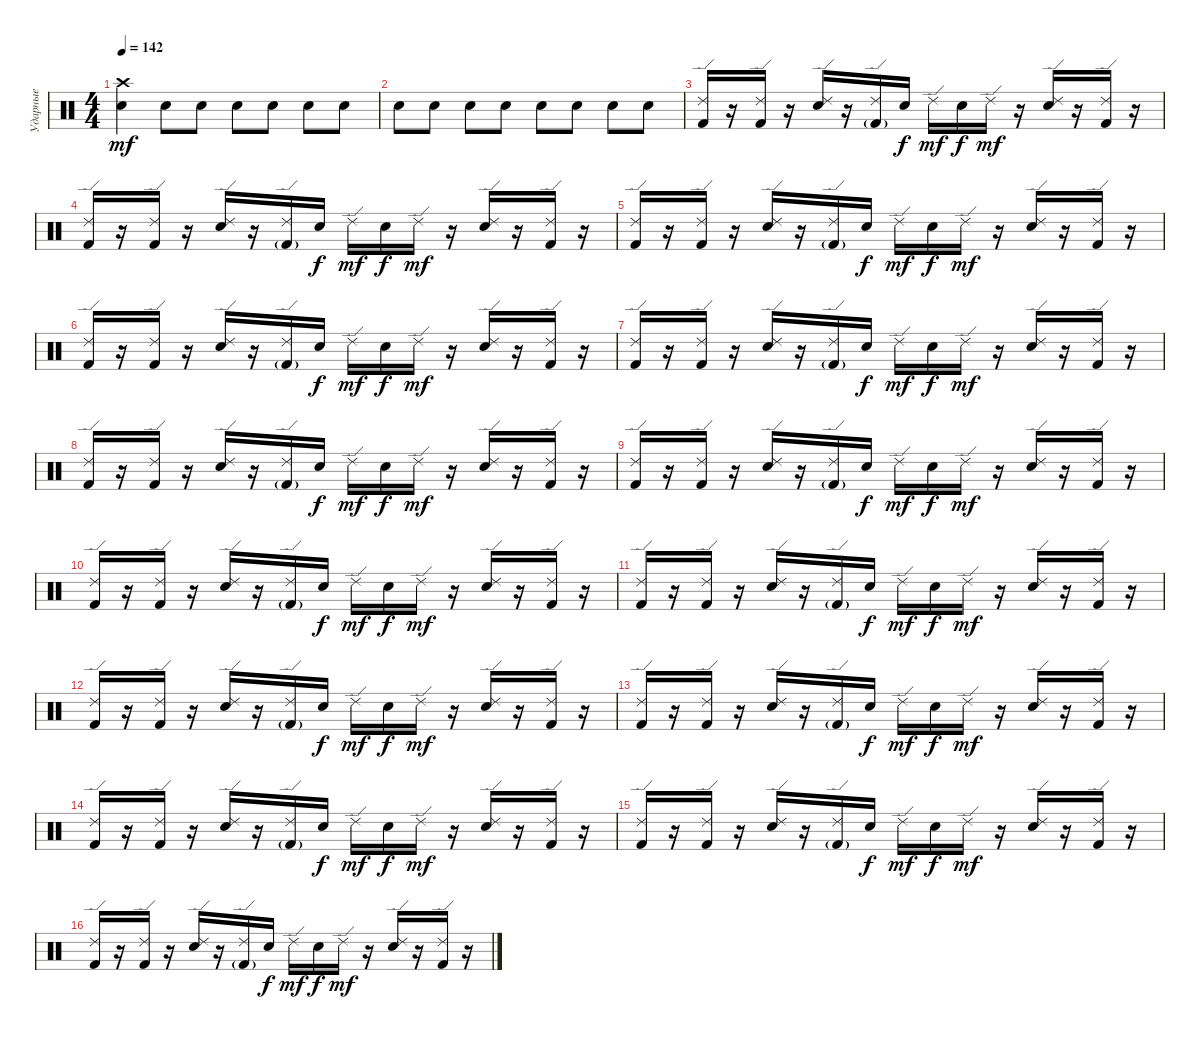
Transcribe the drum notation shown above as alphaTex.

\track ("Ударные" "Ударные") {instrument percussion}
\staff {score}
\articulation defaults
\ts (4 4)
\tempo 142
\clef neutral
\ks c
("Electric Snare (hit)" "Crash high (hit)").4{dy mf} "Electric Snare (hit)".8 "Electric Snare (hit)".8 "Electric Snare (hit)".8 "Electric Snare (hit)".8 "Electric Snare (hit)".8 "Electric Snare (hit)".8 |
"Electric Snare (hit)".8 "Electric Snare (hit)".8 "Electric Snare (hit)".8 "Electric Snare (hit)".8 "Electric Snare (hit)".8 "Electric Snare (hit)".8 "Electric Snare (hit)".8 "Electric Snare (hit)".8 |
("Kick (hit) 2" "Ride (edge) 2").16 r.16 ("Kick (hit) 2" "Ride (edge) 2").16 r.16 ("Electric Snare (hit)" "Ride (edge) 2").16 r.16 ("Kick (hit) 2"{g} "Ride (edge) 2").16 "Electric Snare (hit)".16{dy f} "Ride (edge) 2".16{dy mf} "Electric Snare (hit)".16{dy f} "Ride (edge) 2".16{dy mf} r.16 ("Electric Snare (hit)" "Ride (edge) 2").16 r.16 ("Kick (hit) 2" "Ride (edge) 2").16 r.16 |
("Kick (hit) 2" "Ride (edge) 2").16 r.16 ("Kick (hit) 2" "Ride (edge) 2").16 r.16 ("Electric Snare (hit)" "Ride (edge) 2").16 r.16 ("Kick (hit) 2"{g} "Ride (edge) 2").16 "Electric Snare (hit)".16{dy f} "Ride (edge) 2".16{dy mf} "Electric Snare (hit)".16{dy f} "Ride (edge) 2".16{dy mf} r.16 ("Electric Snare (hit)" "Ride (edge) 2").16 r.16 ("Kick (hit) 2" "Ride (edge) 2").16 r.16 |
("Kick (hit) 2" "Ride (edge) 2").16 r.16 ("Kick (hit) 2" "Ride (edge) 2").16 r.16 ("Electric Snare (hit)" "Ride (edge) 2").16 r.16 ("Kick (hit) 2"{g} "Ride (edge) 2").16 "Electric Snare (hit)".16{dy f} "Ride (edge) 2".16{dy mf} "Electric Snare (hit)".16{dy f} "Ride (edge) 2".16{dy mf} r.16 ("Electric Snare (hit)" "Ride (edge) 2").16 r.16 ("Kick (hit) 2" "Ride (edge) 2").16 r.16 |
("Kick (hit) 2" "Ride (edge) 2").16 r.16 ("Kick (hit) 2" "Ride (edge) 2").16 r.16 ("Electric Snare (hit)" "Ride (edge) 2").16 r.16 ("Kick (hit) 2"{g} "Ride (edge) 2").16 "Electric Snare (hit)".16{dy f} "Ride (edge) 2".16{dy mf} "Electric Snare (hit)".16{dy f} "Ride (edge) 2".16{dy mf} r.16 ("Electric Snare (hit)" "Ride (edge) 2").16 r.16 ("Kick (hit) 2" "Ride (edge) 2").16 r.16 |
("Kick (hit) 2" "Ride (edge) 2").16 r.16 ("Kick (hit) 2" "Ride (edge) 2").16 r.16 ("Electric Snare (hit)" "Ride (edge) 2").16 r.16 ("Kick (hit) 2"{g} "Ride (edge) 2").16 "Electric Snare (hit)".16{dy f} "Ride (edge) 2".16{dy mf} "Electric Snare (hit)".16{dy f} "Ride (edge) 2".16{dy mf} r.16 ("Electric Snare (hit)" "Ride (edge) 2").16 r.16 ("Kick (hit) 2" "Ride (edge) 2").16 r.16 |
("Kick (hit) 2" "Ride (edge) 2").16 r.16 ("Kick (hit) 2" "Ride (edge) 2").16 r.16 ("Electric Snare (hit)" "Ride (edge) 2").16 r.16 ("Kick (hit) 2"{g} "Ride (edge) 2").16 "Electric Snare (hit)".16{dy f} "Ride (edge) 2".16{dy mf} "Electric Snare (hit)".16{dy f} "Ride (edge) 2".16{dy mf} r.16 ("Electric Snare (hit)" "Ride (edge) 2").16 r.16 ("Kick (hit) 2" "Ride (edge) 2").16 r.16 |
("Kick (hit) 2" "Ride (edge) 2").16 r.16 ("Kick (hit) 2" "Ride (edge) 2").16 r.16 ("Electric Snare (hit)" "Ride (edge) 2").16 r.16 ("Kick (hit) 2"{g} "Ride (edge) 2").16 "Electric Snare (hit)".16{dy f} "Ride (edge) 2".16{dy mf} "Electric Snare (hit)".16{dy f} "Ride (edge) 2".16{dy mf} r.16 ("Electric Snare (hit)" "Ride (edge) 2").16 r.16 ("Kick (hit) 2" "Ride (edge) 2").16 r.16 |
("Kick (hit) 2" "Ride (edge) 2").16 r.16 ("Kick (hit) 2" "Ride (edge) 2").16 r.16 ("Electric Snare (hit)" "Ride (edge) 2").16 r.16 ("Kick (hit) 2"{g} "Ride (edge) 2").16 "Electric Snare (hit)".16{dy f} "Ride (edge) 2".16{dy mf} "Electric Snare (hit)".16{dy f} "Ride (edge) 2".16{dy mf} r.16 ("Electric Snare (hit)" "Ride (edge) 2").16 r.16 ("Kick (hit) 2" "Ride (edge) 2").16 r.16 |
("Kick (hit) 2" "Ride (edge) 2").16 r.16 ("Kick (hit) 2" "Ride (edge) 2").16 r.16 ("Electric Snare (hit)" "Ride (edge) 2").16 r.16 ("Kick (hit) 2"{g} "Ride (edge) 2").16 "Electric Snare (hit)".16{dy f} "Ride (edge) 2".16{dy mf} "Electric Snare (hit)".16{dy f} "Ride (edge) 2".16{dy mf} r.16 ("Electric Snare (hit)" "Ride (edge) 2").16 r.16 ("Kick (hit) 2" "Ride (edge) 2").16 r.16 |
("Kick (hit) 2" "Ride (edge) 2").16 r.16 ("Kick (hit) 2" "Ride (edge) 2").16 r.16 ("Electric Snare (hit)" "Ride (edge) 2").16 r.16 ("Kick (hit) 2"{g} "Ride (edge) 2").16 "Electric Snare (hit)".16{dy f} "Ride (edge) 2".16{dy mf} "Electric Snare (hit)".16{dy f} "Ride (edge) 2".16{dy mf} r.16 ("Electric Snare (hit)" "Ride (edge) 2").16 r.16 ("Kick (hit) 2" "Ride (edge) 2").16 r.16 |
("Kick (hit) 2" "Ride (edge) 2").16 r.16 ("Kick (hit) 2" "Ride (edge) 2").16 r.16 ("Electric Snare (hit)" "Ride (edge) 2").16 r.16 ("Kick (hit) 2"{g} "Ride (edge) 2").16 "Electric Snare (hit)".16{dy f} "Ride (edge) 2".16{dy mf} "Electric Snare (hit)".16{dy f} "Ride (edge) 2".16{dy mf} r.16 ("Electric Snare (hit)" "Ride (edge) 2").16 r.16 ("Kick (hit) 2" "Ride (edge) 2").16 r.16 |
("Kick (hit) 2" "Ride (edge) 2").16 r.16 ("Kick (hit) 2" "Ride (edge) 2").16 r.16 ("Electric Snare (hit)" "Ride (edge) 2").16 r.16 ("Kick (hit) 2"{g} "Ride (edge) 2").16 "Electric Snare (hit)".16{dy f} "Ride (edge) 2".16{dy mf} "Electric Snare (hit)".16{dy f} "Ride (edge) 2".16{dy mf} r.16 ("Electric Snare (hit)" "Ride (edge) 2").16 r.16 ("Kick (hit) 2" "Ride (edge) 2").16 r.16 |
("Kick (hit) 2" "Ride (edge) 2").16 r.16 ("Kick (hit) 2" "Ride (edge) 2").16 r.16 ("Electric Snare (hit)" "Ride (edge) 2").16 r.16 ("Kick (hit) 2"{g} "Ride (edge) 2").16 "Electric Snare (hit)".16{dy f} "Ride (edge) 2".16{dy mf} "Electric Snare (hit)".16{dy f} "Ride (edge) 2".16{dy mf} r.16 ("Electric Snare (hit)" "Ride (edge) 2").16 r.16 ("Kick (hit) 2" "Ride (edge) 2").16 r.16 |
("Kick (hit) 2" "Ride (edge) 2").16 r.16 ("Kick (hit) 2" "Ride (edge) 2").16 r.16 ("Electric Snare (hit)" "Ride (edge) 2").16 r.16 ("Kick (hit) 2"{g} "Ride (edge) 2").16 "Electric Snare (hit)".16{dy f} "Ride (edge) 2".16{dy mf} "Electric Snare (hit)".16{dy f} "Ride (edge) 2".16{dy mf} r.16 ("Electric Snare (hit)" "Ride (edge) 2").16 r.16 ("Kick (hit) 2" "Ride (edge) 2").16 r.16
